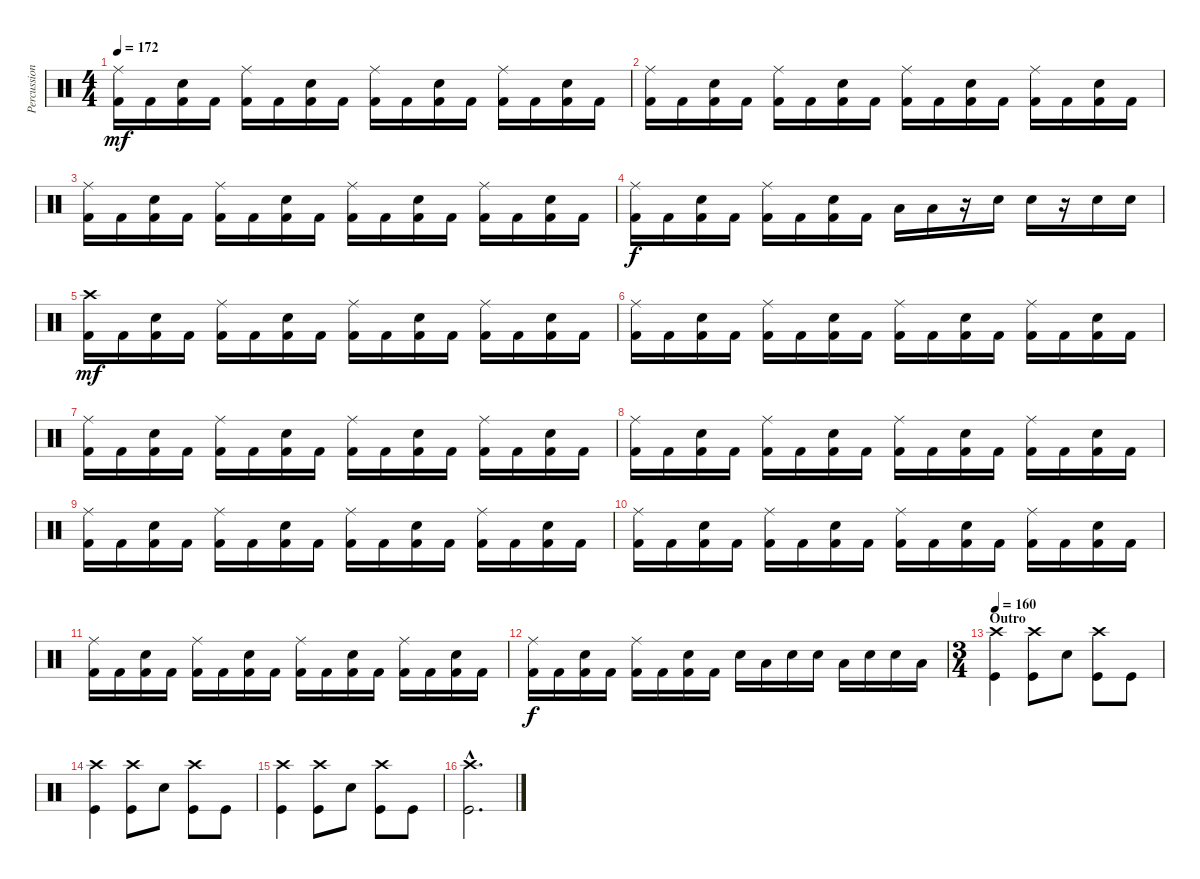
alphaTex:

\track ("Percussion" "Percussion") {instrument percussion}
\staff {score}
\articulation defaults
\ts (4 4)
\tempo 172
\clef neutral
\ks c
("Ride (middle)" "Kick (hit) 2").16{dy mf} "Kick (hit) 2".16 ("Electric Snare (hit)" "Kick (hit) 2").16 "Kick (hit) 2".16 ("Ride (middle)" "Kick (hit) 2").16 "Kick (hit) 2".16 ("Electric Snare (hit)" "Kick (hit) 2").16 "Kick (hit) 2".16 ("Ride (middle)" "Kick (hit) 2").16 "Kick (hit) 2".16 ("Electric Snare (hit)" "Kick (hit) 2").16 "Kick (hit) 2".16 ("Ride (middle)" "Kick (hit) 2").16 "Kick (hit) 2".16 ("Electric Snare (hit)" "Kick (hit) 2").16 "Kick (hit) 2".16 |
("Ride (middle)" "Kick (hit) 2").16 "Kick (hit) 2".16 ("Electric Snare (hit)" "Kick (hit) 2").16 "Kick (hit) 2".16 ("Ride (middle)" "Kick (hit) 2").16 "Kick (hit) 2".16 ("Electric Snare (hit)" "Kick (hit) 2").16 "Kick (hit) 2".16 ("Ride (middle)" "Kick (hit) 2").16 "Kick (hit) 2".16 ("Electric Snare (hit)" "Kick (hit) 2").16 "Kick (hit) 2".16 ("Ride (middle)" "Kick (hit) 2").16 "Kick (hit) 2".16 ("Electric Snare (hit)" "Kick (hit) 2").16 "Kick (hit) 2".16 |
("Ride (middle)" "Kick (hit) 2").16 "Kick (hit) 2".16 ("Electric Snare (hit)" "Kick (hit) 2").16 "Kick (hit) 2".16 ("Ride (middle)" "Kick (hit) 2").16 "Kick (hit) 2".16 ("Electric Snare (hit)" "Kick (hit) 2").16 "Kick (hit) 2".16 ("Ride (middle)" "Kick (hit) 2").16 "Kick (hit) 2".16 ("Electric Snare (hit)" "Kick (hit) 2").16 "Kick (hit) 2".16 ("Ride (middle)" "Kick (hit) 2").16 "Kick (hit) 2".16 ("Electric Snare (hit)" "Kick (hit) 2").16 "Kick (hit) 2".16 |
("Ride (middle)" "Kick (hit) 2").16{dy f} "Kick (hit) 2".16 ("Electric Snare (hit)" "Kick (hit) 2").16 "Kick (hit) 2".16 ("Ride (middle)" "Kick (hit) 2").16 "Kick (hit) 2".16 ("Electric Snare (hit)" "Kick (hit) 2").16 "Kick (hit) 2".16 "Low Tom (hit)".16 "Low Tom (hit)".16 r.16 "Electric Snare (hit)".16 "Electric Snare (hit)".16 r.16 "Electric Snare (hit)".16 "Electric Snare (hit)".16 |
("Crash high (hit)" "Kick (hit) 2").16{dy mf} "Kick (hit) 2".16 ("Electric Snare (hit)" "Kick (hit) 2").16 "Kick (hit) 2".16 ("Ride (middle)" "Kick (hit) 2").16 "Kick (hit) 2".16 ("Electric Snare (hit)" "Kick (hit) 2").16 "Kick (hit) 2".16 ("Ride (middle)" "Kick (hit) 2").16 "Kick (hit) 2".16 ("Electric Snare (hit)" "Kick (hit) 2").16 "Kick (hit) 2".16 ("Ride (middle)" "Kick (hit) 2").16 "Kick (hit) 2".16 ("Electric Snare (hit)" "Kick (hit) 2").16 "Kick (hit) 2".16 |
("Ride (middle)" "Kick (hit) 2").16 "Kick (hit) 2".16 ("Electric Snare (hit)" "Kick (hit) 2").16 "Kick (hit) 2".16 ("Ride (middle)" "Kick (hit) 2").16 "Kick (hit) 2".16 ("Electric Snare (hit)" "Kick (hit) 2").16 "Kick (hit) 2".16 ("Ride (middle)" "Kick (hit) 2").16 "Kick (hit) 2".16 ("Electric Snare (hit)" "Kick (hit) 2").16 "Kick (hit) 2".16 ("Ride (middle)" "Kick (hit) 2").16 "Kick (hit) 2".16 ("Electric Snare (hit)" "Kick (hit) 2").16 "Kick (hit) 2".16 |
("Ride (middle)" "Kick (hit) 2").16 "Kick (hit) 2".16 ("Electric Snare (hit)" "Kick (hit) 2").16 "Kick (hit) 2".16 ("Ride (middle)" "Kick (hit) 2").16 "Kick (hit) 2".16 ("Electric Snare (hit)" "Kick (hit) 2").16 "Kick (hit) 2".16 ("Ride (middle)" "Kick (hit) 2").16 "Kick (hit) 2".16 ("Electric Snare (hit)" "Kick (hit) 2").16 "Kick (hit) 2".16 ("Ride (middle)" "Kick (hit) 2").16 "Kick (hit) 2".16 ("Electric Snare (hit)" "Kick (hit) 2").16 "Kick (hit) 2".16 |
("Ride (middle)" "Kick (hit) 2").16 "Kick (hit) 2".16 ("Electric Snare (hit)" "Kick (hit) 2").16 "Kick (hit) 2".16 ("Ride (middle)" "Kick (hit) 2").16 "Kick (hit) 2".16 ("Electric Snare (hit)" "Kick (hit) 2").16 "Kick (hit) 2".16 ("Ride (middle)" "Kick (hit) 2").16 "Kick (hit) 2".16 ("Electric Snare (hit)" "Kick (hit) 2").16 "Kick (hit) 2".16 ("Ride (middle)" "Kick (hit) 2").16 "Kick (hit) 2".16 ("Electric Snare (hit)" "Kick (hit) 2").16 "Kick (hit) 2".16 |
("Ride (middle)" "Kick (hit) 2").16 "Kick (hit) 2".16 ("Electric Snare (hit)" "Kick (hit) 2").16 "Kick (hit) 2".16 ("Ride (middle)" "Kick (hit) 2").16 "Kick (hit) 2".16 ("Electric Snare (hit)" "Kick (hit) 2").16 "Kick (hit) 2".16 ("Ride (middle)" "Kick (hit) 2").16 "Kick (hit) 2".16 ("Electric Snare (hit)" "Kick (hit) 2").16 "Kick (hit) 2".16 ("Ride (middle)" "Kick (hit) 2").16 "Kick (hit) 2".16 ("Electric Snare (hit)" "Kick (hit) 2").16 "Kick (hit) 2".16 |
("Ride (middle)" "Kick (hit) 2").16 "Kick (hit) 2".16 ("Electric Snare (hit)" "Kick (hit) 2").16 "Kick (hit) 2".16 ("Ride (middle)" "Kick (hit) 2").16 "Kick (hit) 2".16 ("Electric Snare (hit)" "Kick (hit) 2").16 "Kick (hit) 2".16 ("Ride (middle)" "Kick (hit) 2").16 "Kick (hit) 2".16 ("Electric Snare (hit)" "Kick (hit) 2").16 "Kick (hit) 2".16 ("Ride (middle)" "Kick (hit) 2").16 "Kick (hit) 2".16 ("Electric Snare (hit)" "Kick (hit) 2").16 "Kick (hit) 2".16 |
("Ride (middle)" "Kick (hit) 2").16 "Kick (hit) 2".16 ("Electric Snare (hit)" "Kick (hit) 2").16 "Kick (hit) 2".16 ("Ride (middle)" "Kick (hit) 2").16 "Kick (hit) 2".16 ("Electric Snare (hit)" "Kick (hit) 2").16 "Kick (hit) 2".16 ("Ride (middle)" "Kick (hit) 2").16 "Kick (hit) 2".16 ("Electric Snare (hit)" "Kick (hit) 2").16 "Kick (hit) 2".16 ("Ride (middle)" "Kick (hit) 2").16 "Kick (hit) 2".16 ("Electric Snare (hit)" "Kick (hit) 2").16 "Kick (hit) 2".16 |
("Ride (middle)" "Kick (hit) 2").16{dy f} "Kick (hit) 2".16 ("Electric Snare (hit)" "Kick (hit) 2").16 "Kick (hit) 2".16 ("Ride (middle)" "Kick (hit) 2").16 "Kick (hit) 2".16 ("Electric Snare (hit)" "Kick (hit) 2").16 "Kick (hit) 2".16 "Electric Snare (hit)".16 "Low Tom (hit)".16 "Electric Snare (hit)".16 "Electric Snare (hit)".16 "Low Tom (hit)".16 "Electric Snare (hit)".16 "Electric Snare (hit)".16 "Low Tom (hit)".16 |
\ts (3 4)
\section ("" "Outro")
\tempo 160
("Crash high (hit)" "Kick (hit)").4 ("Crash high (hit)" "Kick (hit)").8 "Electric Snare (hit)".8 ("Crash high (hit)" "Kick (hit)").8 "Kick (hit)".8 |
("Crash high (hit)" "Kick (hit)").4 ("Crash high (hit)" "Kick (hit)").8 "Electric Snare (hit)".8 ("Crash high (hit)" "Kick (hit)").8 "Kick (hit)".8 |
("Crash high (hit)" "Kick (hit)").4 ("Crash high (hit)" "Kick (hit)").8 "Electric Snare (hit)".8 ("Crash high (hit)" "Kick (hit)").8 "Kick (hit)".8 |
("Crash high (hit)"{hac} "Kick (hit)"{hac}).2{d}
